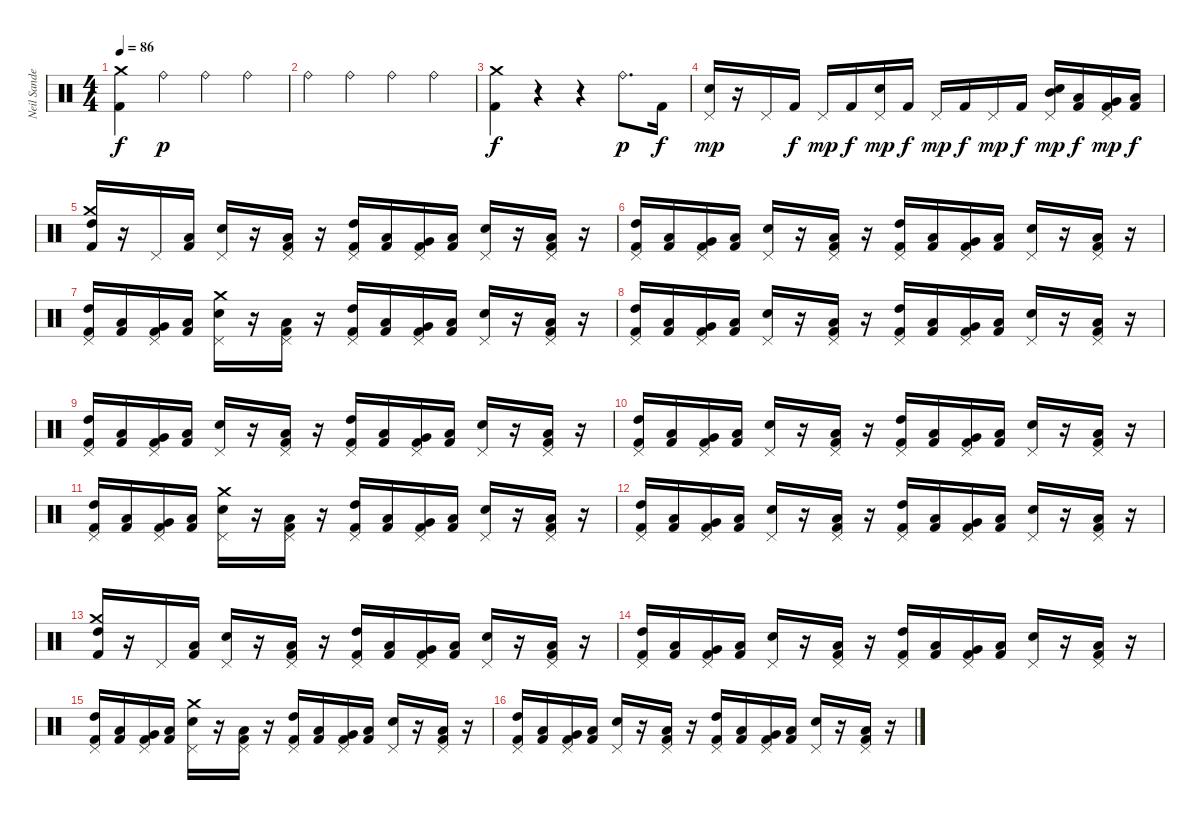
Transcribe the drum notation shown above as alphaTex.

\track ("Neil Sanderson" "Neil Sande") {instrument percussion}
\staff {score}
\articulation defaults
\ts (4 4)
\tempo 86
\clef neutral
\ks c
("Kick (hit) 2" "Crash medium (hit)").4{dy f} "Ride (bell)".4{dy p} "Ride (bell)".4 "Ride (bell)".4 |
"Ride (bell)".4 "Ride (bell)".4 "Ride (bell)".4 "Ride (bell)".4 |
("Kick (hit) 2" "Crash medium (hit)").4{dy f} r.4 r.4 "Ride (bell)".8{d dy p} "Kick (hit) 2".16{dy f} |
("Snare (hit) 2" "Pedal Hi-Hat (hit)").16{dy mp} r.16 "Pedal Hi-Hat (hit)".16 "Kick (hit) 2".16{dy f} "Pedal Hi-Hat (hit)".16{dy mp} "Kick (hit) 2".16{dy f} ("Snare (hit) 2" "Pedal Hi-Hat (hit)").16{dy mp} "Kick (hit) 2".16{dy f} "Pedal Hi-Hat (hit)".16{dy mp} "Kick (hit) 2".16{dy f} "Pedal Hi-Hat (hit)".16{dy mp} "Kick (hit) 2".16{dy f} ("Snare (hit) 2" "Mid Tom (hit)" "Pedal Hi-Hat (hit)").16{dy mp} ("Kick (hit) 2" "Low Tom (hit)").16{dy f} ("Kick (hit) 2" "Very Low Tom (hit)" "Pedal Hi-Hat (hit)").16{dy mp} ("Kick (hit) 2" "Low Floor Tom (hit)").16{dy f} |
("Kick (hit) 2" "High Tom (hit)" "Crash medium (hit)").16 r.16 "Pedal Hi-Hat (hit)".16 ("Kick (hit) 2" "Low Floor Tom (hit)").16 ("Snare (hit) 2" "Pedal Hi-Hat (hit)").16 r.16 ("Kick (hit) 2" "Low Floor Tom (hit)" "Pedal Hi-Hat (hit)").16 r.16 ("Kick (hit) 2" "High Tom (hit)" "Pedal Hi-Hat (hit)").16 ("Kick (hit) 2" "Low Tom (hit)").16 ("Kick (hit) 2" "Very Low Tom (hit)" "Pedal Hi-Hat (hit)").16 ("Kick (hit) 2" "Low Floor Tom (hit)").16 ("Snare (hit) 2" "Pedal Hi-Hat (hit)").16 r.16 ("Kick (hit) 2" "Low Floor Tom (hit)" "Pedal Hi-Hat (hit)").16 r.16 |
("Kick (hit) 2" "High Tom (hit)" "Pedal Hi-Hat (hit)").16 ("Kick (hit) 2" "Low Tom (hit)").16 ("Kick (hit) 2" "Very Low Tom (hit)" "Pedal Hi-Hat (hit)").16 ("Kick (hit) 2" "Low Floor Tom (hit)").16 ("Snare (hit) 2" "Pedal Hi-Hat (hit)").16 r.16 ("Kick (hit) 2" "Low Floor Tom (hit)" "Pedal Hi-Hat (hit)").16 r.16 ("Kick (hit) 2" "High Tom (hit)" "Pedal Hi-Hat (hit)").16 ("Kick (hit) 2" "Low Tom (hit)").16 ("Kick (hit) 2" "Very Low Tom (hit)" "Pedal Hi-Hat (hit)").16 ("Kick (hit) 2" "Low Floor Tom (hit)").16 ("Snare (hit) 2" "Pedal Hi-Hat (hit)").16 r.16 ("Kick (hit) 2" "Low Floor Tom (hit)" "Pedal Hi-Hat (hit)").16 r.16 |
("Kick (hit) 2" "High Tom (hit)" "Pedal Hi-Hat (hit)").16 ("Kick (hit) 2" "Low Tom (hit)").16 ("Kick (hit) 2" "Very Low Tom (hit)" "Pedal Hi-Hat (hit)").16 ("Kick (hit) 2" "Low Floor Tom (hit)").16 ("Snare (hit) 2" "Pedal Hi-Hat (hit)" "Crash medium (hit)").16 r.16 ("Kick (hit) 2" "Low Floor Tom (hit)" "Pedal Hi-Hat (hit)").16 r.16 ("Kick (hit) 2" "High Tom (hit)" "Pedal Hi-Hat (hit)").16 ("Kick (hit) 2" "Low Tom (hit)").16 ("Kick (hit) 2" "Very Low Tom (hit)" "Pedal Hi-Hat (hit)").16 ("Kick (hit) 2" "Low Floor Tom (hit)").16 ("Snare (hit) 2" "Pedal Hi-Hat (hit)").16 r.16 ("Kick (hit) 2" "Low Floor Tom (hit)" "Pedal Hi-Hat (hit)").16 r.16 |
("Kick (hit) 2" "High Tom (hit)" "Pedal Hi-Hat (hit)").16 ("Kick (hit) 2" "Low Tom (hit)").16 ("Kick (hit) 2" "Very Low Tom (hit)" "Pedal Hi-Hat (hit)").16 ("Kick (hit) 2" "Low Floor Tom (hit)").16 ("Snare (hit) 2" "Pedal Hi-Hat (hit)").16 r.16 ("Kick (hit) 2" "Low Floor Tom (hit)" "Pedal Hi-Hat (hit)").16 r.16 ("Kick (hit) 2" "High Tom (hit)" "Pedal Hi-Hat (hit)").16 ("Kick (hit) 2" "Low Tom (hit)").16 ("Kick (hit) 2" "Very Low Tom (hit)" "Pedal Hi-Hat (hit)").16 ("Kick (hit) 2" "Low Floor Tom (hit)").16 ("Snare (hit) 2" "Pedal Hi-Hat (hit)").16 r.16 ("Kick (hit) 2" "Low Floor Tom (hit)" "Pedal Hi-Hat (hit)").16 r.16 |
("Kick (hit) 2" "High Tom (hit)" "Pedal Hi-Hat (hit)").16 ("Kick (hit) 2" "Low Tom (hit)").16 ("Kick (hit) 2" "Very Low Tom (hit)" "Pedal Hi-Hat (hit)").16 ("Kick (hit) 2" "Low Floor Tom (hit)").16 ("Snare (hit) 2" "Pedal Hi-Hat (hit)").16 r.16 ("Kick (hit) 2" "Low Floor Tom (hit)" "Pedal Hi-Hat (hit)").16 r.16 ("Kick (hit) 2" "High Tom (hit)" "Pedal Hi-Hat (hit)").16 ("Kick (hit) 2" "Low Tom (hit)").16 ("Kick (hit) 2" "Very Low Tom (hit)" "Pedal Hi-Hat (hit)").16 ("Kick (hit) 2" "Low Floor Tom (hit)").16 ("Snare (hit) 2" "Pedal Hi-Hat (hit)").16 r.16 ("Kick (hit) 2" "Low Floor Tom (hit)" "Pedal Hi-Hat (hit)").16 r.16 |
("Kick (hit) 2" "High Tom (hit)" "Pedal Hi-Hat (hit)").16 ("Kick (hit) 2" "Low Tom (hit)").16 ("Kick (hit) 2" "Very Low Tom (hit)" "Pedal Hi-Hat (hit)").16 ("Kick (hit) 2" "Low Floor Tom (hit)").16 ("Snare (hit) 2" "Pedal Hi-Hat (hit)").16 r.16 ("Kick (hit) 2" "Low Floor Tom (hit)" "Pedal Hi-Hat (hit)").16 r.16 ("Kick (hit) 2" "High Tom (hit)" "Pedal Hi-Hat (hit)").16 ("Kick (hit) 2" "Low Tom (hit)").16 ("Kick (hit) 2" "Very Low Tom (hit)" "Pedal Hi-Hat (hit)").16 ("Kick (hit) 2" "Low Floor Tom (hit)").16 ("Snare (hit) 2" "Pedal Hi-Hat (hit)").16 r.16 ("Kick (hit) 2" "Low Floor Tom (hit)" "Pedal Hi-Hat (hit)").16 r.16 |
("Kick (hit) 2" "High Tom (hit)" "Pedal Hi-Hat (hit)").16 ("Kick (hit) 2" "Low Tom (hit)").16 ("Kick (hit) 2" "Very Low Tom (hit)" "Pedal Hi-Hat (hit)").16 ("Kick (hit) 2" "Low Floor Tom (hit)").16 ("Snare (hit) 2" "Pedal Hi-Hat (hit)" "Crash medium (hit)").16 r.16 ("Kick (hit) 2" "Low Floor Tom (hit)" "Pedal Hi-Hat (hit)").16 r.16 ("Kick (hit) 2" "High Tom (hit)" "Pedal Hi-Hat (hit)").16 ("Kick (hit) 2" "Low Tom (hit)").16 ("Kick (hit) 2" "Very Low Tom (hit)" "Pedal Hi-Hat (hit)").16 ("Kick (hit) 2" "Low Floor Tom (hit)").16 ("Snare (hit) 2" "Pedal Hi-Hat (hit)").16 r.16 ("Kick (hit) 2" "Low Floor Tom (hit)" "Pedal Hi-Hat (hit)").16 r.16 |
("Kick (hit) 2" "High Tom (hit)" "Pedal Hi-Hat (hit)").16 ("Kick (hit) 2" "Low Tom (hit)").16 ("Kick (hit) 2" "Very Low Tom (hit)" "Pedal Hi-Hat (hit)").16 ("Kick (hit) 2" "Low Floor Tom (hit)").16 ("Snare (hit) 2" "Pedal Hi-Hat (hit)").16 r.16 ("Kick (hit) 2" "Low Floor Tom (hit)" "Pedal Hi-Hat (hit)").16 r.16 ("Kick (hit) 2" "High Tom (hit)" "Pedal Hi-Hat (hit)").16 ("Kick (hit) 2" "Low Tom (hit)").16 ("Kick (hit) 2" "Very Low Tom (hit)" "Pedal Hi-Hat (hit)").16 ("Kick (hit) 2" "Low Floor Tom (hit)").16 ("Snare (hit) 2" "Pedal Hi-Hat (hit)").16 r.16 ("Kick (hit) 2" "Low Floor Tom (hit)" "Pedal Hi-Hat (hit)").16 r.16 |
("Kick (hit) 2" "High Tom (hit)" "Crash medium (hit)").16 r.16 "Pedal Hi-Hat (hit)".16 ("Kick (hit) 2" "Low Floor Tom (hit)").16 ("Snare (hit) 2" "Pedal Hi-Hat (hit)").16 r.16 ("Kick (hit) 2" "Low Floor Tom (hit)" "Pedal Hi-Hat (hit)").16 r.16 ("Kick (hit) 2" "High Tom (hit)" "Pedal Hi-Hat (hit)").16 ("Kick (hit) 2" "Low Tom (hit)").16 ("Kick (hit) 2" "Very Low Tom (hit)" "Pedal Hi-Hat (hit)").16 ("Kick (hit) 2" "Low Floor Tom (hit)").16 ("Snare (hit) 2" "Pedal Hi-Hat (hit)").16 r.16 ("Kick (hit) 2" "Low Floor Tom (hit)" "Pedal Hi-Hat (hit)").16 r.16 |
("Kick (hit) 2" "High Tom (hit)" "Pedal Hi-Hat (hit)").16 ("Kick (hit) 2" "Low Tom (hit)").16 ("Kick (hit) 2" "Very Low Tom (hit)" "Pedal Hi-Hat (hit)").16 ("Kick (hit) 2" "Low Floor Tom (hit)").16 ("Snare (hit) 2" "Pedal Hi-Hat (hit)").16 r.16 ("Kick (hit) 2" "Low Floor Tom (hit)" "Pedal Hi-Hat (hit)").16 r.16 ("Kick (hit) 2" "High Tom (hit)" "Pedal Hi-Hat (hit)").16 ("Kick (hit) 2" "Low Tom (hit)").16 ("Kick (hit) 2" "Very Low Tom (hit)" "Pedal Hi-Hat (hit)").16 ("Kick (hit) 2" "Low Floor Tom (hit)").16 ("Snare (hit) 2" "Pedal Hi-Hat (hit)").16 r.16 ("Kick (hit) 2" "Low Floor Tom (hit)" "Pedal Hi-Hat (hit)").16 r.16 |
("Kick (hit) 2" "High Tom (hit)" "Pedal Hi-Hat (hit)").16 ("Kick (hit) 2" "Low Tom (hit)").16 ("Kick (hit) 2" "Very Low Tom (hit)" "Pedal Hi-Hat (hit)").16 ("Kick (hit) 2" "Low Floor Tom (hit)").16 ("Snare (hit) 2" "Pedal Hi-Hat (hit)" "Crash medium (hit)").16 r.16 ("Kick (hit) 2" "Low Floor Tom (hit)" "Pedal Hi-Hat (hit)").16 r.16 ("Kick (hit) 2" "High Tom (hit)" "Pedal Hi-Hat (hit)").16 ("Kick (hit) 2" "Low Tom (hit)").16 ("Kick (hit) 2" "Very Low Tom (hit)" "Pedal Hi-Hat (hit)").16 ("Kick (hit) 2" "Low Floor Tom (hit)").16 ("Snare (hit) 2" "Pedal Hi-Hat (hit)").16 r.16 ("Kick (hit) 2" "Low Floor Tom (hit)" "Pedal Hi-Hat (hit)").16 r.16 |
("Kick (hit) 2" "High Tom (hit)" "Pedal Hi-Hat (hit)").16 ("Kick (hit) 2" "Low Tom (hit)").16 ("Kick (hit) 2" "Very Low Tom (hit)" "Pedal Hi-Hat (hit)").16 ("Kick (hit) 2" "Low Floor Tom (hit)").16 ("Snare (hit) 2" "Pedal Hi-Hat (hit)").16 r.16 ("Kick (hit) 2" "Low Floor Tom (hit)" "Pedal Hi-Hat (hit)").16 r.16 ("Kick (hit) 2" "High Tom (hit)" "Pedal Hi-Hat (hit)").16 ("Kick (hit) 2" "Low Tom (hit)").16 ("Kick (hit) 2" "Very Low Tom (hit)" "Pedal Hi-Hat (hit)").16 ("Kick (hit) 2" "Low Floor Tom (hit)").16 ("Snare (hit) 2" "Pedal Hi-Hat (hit)").16 r.16 ("Kick (hit) 2" "Low Floor Tom (hit)" "Pedal Hi-Hat (hit)").16 r.16
